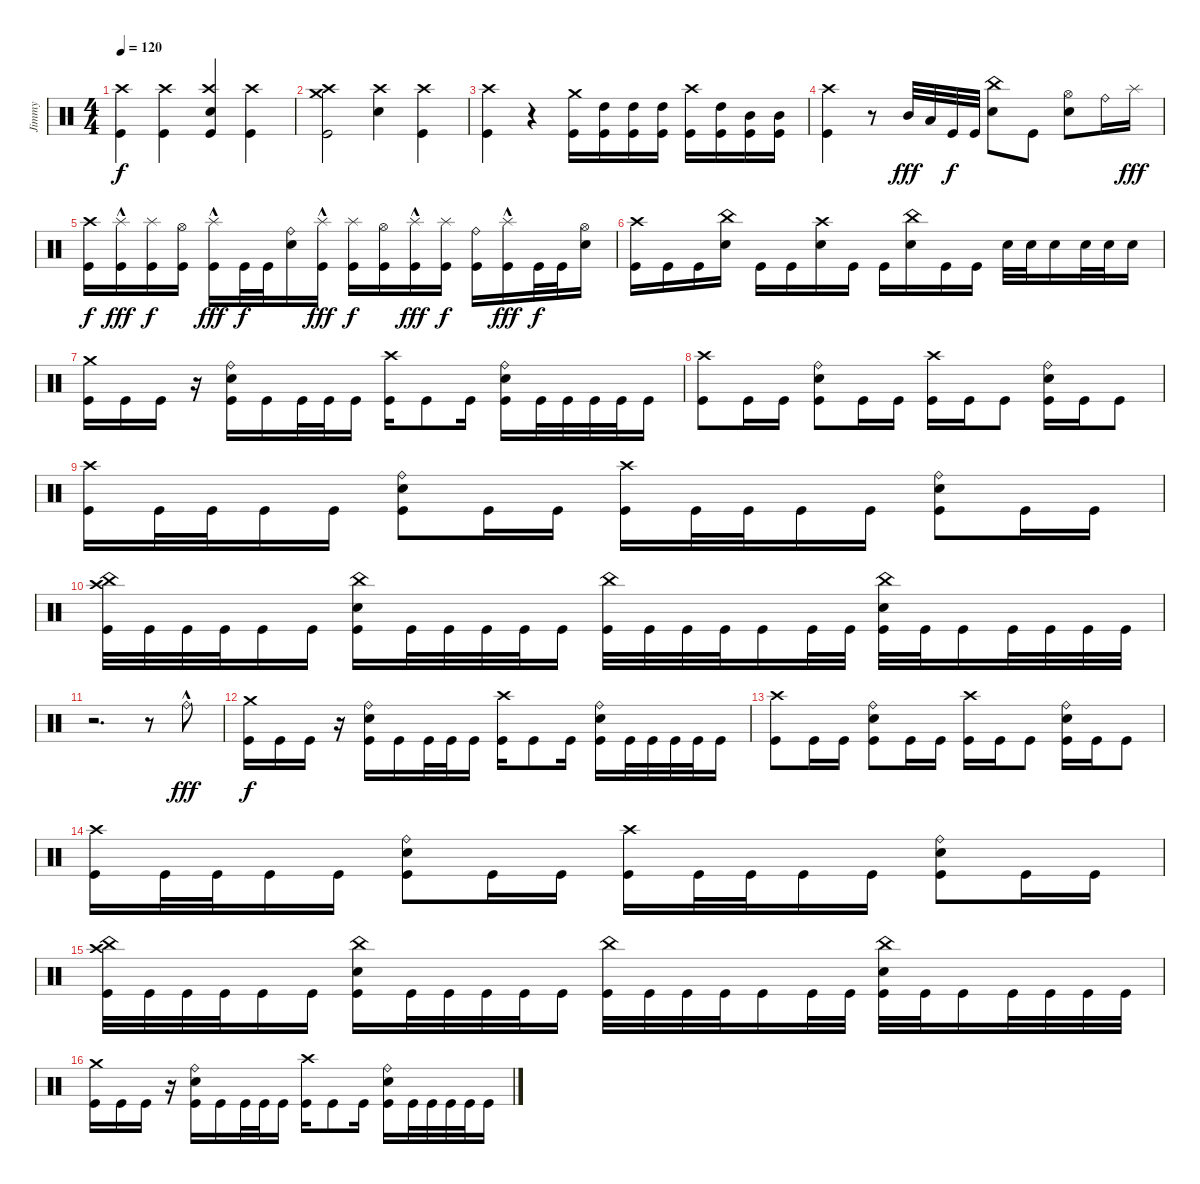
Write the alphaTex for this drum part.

\track ("Jimmy" "Jimmy") {instrument percussion}
\staff {score}
\articulation defaults
\ts (4 4)
\tempo 120
\clef neutral
\ks c
("Kick (hit)" "Crash high (hit)").4{dy f} ("Kick (hit)" "Crash high (hit)").4 ("Crash high (hit)" "Kick (hit)" "Snare (hit) 2").4 ("Kick (hit)" "Crash high (hit)").4 |
("Crash high (hit)" "Kick (hit)" "Crash medium (hit)").2 ("Snare (hit) 2" "Crash high (hit)").4 ("Crash high (hit)" "Kick (hit)").4 |
("Kick (hit)" "Crash high (hit)").4 r.4 ("Kick (hit)" "Crash medium (hit)").16 ("High Tom (hit)" "Kick (hit)").16 ("High Tom (hit)" "Kick (hit)").16 ("High Tom (hit)" "Kick (hit)").16 ("Crash high (hit)" "Kick (hit)").16 ("High Tom (hit)" "Kick (hit)").16 ("Mid Tom (hit)" "Kick (hit)").16 ("Mid Tom (hit)" "Kick (hit)").16 |
("Kick (hit)" "Crash high (hit)").4 r.8 "Mid Tom (hit)".32{dy fff} "Low Tom (hit)".32 "Kick (hit)".32{dy f} "Kick (hit)".32 ("Snare (hit) 2" "China (hit)").8 "Kick (hit)".8 ("Snare (hit) 2" "Hi-Hat (open)").8 "Ride (bell)".16 "Splash (hit)".16{dy fff} |
("Kick (hit)" "Crash high (hit)").16{dy f} ("Kick (hit)" "Splash (hit)"{hac}).16{dy fff} ("Kick (hit)" "Splash (hit)").16{dy f} ("Kick (hit)" "Hi-Hat (open)").16 ("Kick (hit)" "Splash (hit)"{hac}).16{dy fff} "Kick (hit)".32{dy f} "Kick (hit)".32 ("Ride (bell)" "Snare (hit) 2").16 ("Kick (hit)" "Splash (hit)"{hac}).16{dy fff} ("Kick (hit)" "Splash (hit)").16{dy f} ("Kick (hit)" "Hi-Hat (open)").16 ("Kick (hit)" "Splash (hit)"{hac}).16{dy fff} ("Kick (hit)" "Splash (hit)").16{dy f} ("Kick (hit)" "Ride (bell)").16 ("Kick (hit)" "Splash (hit)"{hac}).16{dy fff} "Kick (hit)".32{dy f} "Kick (hit)".32 ("Snare (hit) 2" "Hi-Hat (open)").16 |
("Kick (hit)" "Crash high (hit)").16 "Kick (hit)".16 "Kick (hit)".16 ("Snare (hit) 2" "China (hit)").16 "Kick (hit)".16 "Kick (hit)".16 ("Snare (hit) 2" "Crash high (hit)").16 "Kick (hit)".16 "Kick (hit)".16 ("Snare (hit) 2" "China (hit)").16 "Kick (hit)".16 "Kick (hit)".16 "Snare (hit) 2".32 "Snare (hit) 2".32 "Snare (hit) 2".16 "Snare (hit) 2".32 "Snare (hit) 2".32 "Snare (hit) 2".16 |
("Crash medium (hit)" "Kick (hit)").16 "Kick (hit)".16 "Kick (hit)".16 r.16 ("Snare (hit) 2" "Kick (hit)" "Ride (bell)").16 "Kick (hit)".16 "Kick (hit)".32 "Kick (hit)".32 "Kick (hit)".16 ("Crash high (hit)" "Kick (hit)").16 "Kick (hit)".8 "Kick (hit)".16 ("Snare (hit) 2" "Kick (hit)" "Ride (bell)").16 "Kick (hit)".32 "Kick (hit)".32 "Kick (hit)".32 "Kick (hit)".32 "Kick (hit)".16 |
("Crash high (hit)" "Kick (hit)").8 "Kick (hit)".16 "Kick (hit)".16 ("Snare (hit) 2" "Kick (hit)" "Ride (bell)").8 "Kick (hit)".16 "Kick (hit)".16 ("Crash high (hit)" "Kick (hit)").16 "Kick (hit)".16 "Kick (hit)".8 ("Snare (hit) 2" "Kick (hit)" "Ride (bell)").16 "Kick (hit)".16 "Kick (hit)".8 |
("Crash high (hit)" "Kick (hit)").16 "Kick (hit)".32 "Kick (hit)".32 "Kick (hit)".16 "Kick (hit)".16 ("Snare (hit) 2" "Kick (hit)" "Ride (bell)").8 "Kick (hit)".16 "Kick (hit)".16 ("Crash high (hit)" "Kick (hit)").16 "Kick (hit)".32 "Kick (hit)".32 "Kick (hit)".16 "Kick (hit)".16 ("Ride (bell)" "Kick (hit)" "Snare (hit) 2").8 "Kick (hit)".16 "Kick (hit)".16 |
("Crash high (hit)" "Kick (hit)" "China (hit)").32 "Kick (hit)".32 "Kick (hit)".32 "Kick (hit)".32 "Kick (hit)".16 "Kick (hit)".16 ("Snare (hit) 2" "Kick (hit)" "China (hit)").16 "Kick (hit)".32 "Kick (hit)".32 "Kick (hit)".32 "Kick (hit)".32 "Kick (hit)".16 ("China (hit)" "Kick (hit)").32 "Kick (hit)".32 "Kick (hit)".32 "Kick (hit)".32 "Kick (hit)".16 "Kick (hit)".32 "Kick (hit)".32 ("Snare (hit) 2" "Kick (hit)" "China (hit)").32 "Kick (hit)".32 "Kick (hit)".16 "Kick (hit)".32 "Kick (hit)".32 "Kick (hit)".32 "Kick (hit)".32 |
r.2{d} r.8 "Ride (bell)"{hac}.8{dy fff} |
("Crash medium (hit)" "Kick (hit)").16{dy f} "Kick (hit)".16 "Kick (hit)".16 r.16 ("Snare (hit) 2" "Kick (hit)" "Ride (bell)").16 "Kick (hit)".16 "Kick (hit)".32 "Kick (hit)".32 "Kick (hit)".16 ("Crash high (hit)" "Kick (hit)").16 "Kick (hit)".8 "Kick (hit)".16 ("Snare (hit) 2" "Kick (hit)" "Ride (bell)").16 "Kick (hit)".32 "Kick (hit)".32 "Kick (hit)".32 "Kick (hit)".32 "Kick (hit)".16 |
("Crash high (hit)" "Kick (hit)").8 "Kick (hit)".16 "Kick (hit)".16 ("Snare (hit) 2" "Kick (hit)" "Ride (bell)").8 "Kick (hit)".16 "Kick (hit)".16 ("Crash high (hit)" "Kick (hit)").16 "Kick (hit)".16 "Kick (hit)".8 ("Snare (hit) 2" "Kick (hit)" "Ride (bell)").16 "Kick (hit)".16 "Kick (hit)".8 |
("Crash high (hit)" "Kick (hit)").16 "Kick (hit)".32 "Kick (hit)".32 "Kick (hit)".16 "Kick (hit)".16 ("Snare (hit) 2" "Kick (hit)" "Ride (bell)").8 "Kick (hit)".16 "Kick (hit)".16 ("Crash high (hit)" "Kick (hit)").16 "Kick (hit)".32 "Kick (hit)".32 "Kick (hit)".16 "Kick (hit)".16 ("Ride (bell)" "Kick (hit)" "Snare (hit) 2").8 "Kick (hit)".16 "Kick (hit)".16 |
("Crash high (hit)" "Kick (hit)" "China (hit)").32 "Kick (hit)".32 "Kick (hit)".32 "Kick (hit)".32 "Kick (hit)".16 "Kick (hit)".16 ("Snare (hit) 2" "Kick (hit)" "China (hit)").16 "Kick (hit)".32 "Kick (hit)".32 "Kick (hit)".32 "Kick (hit)".32 "Kick (hit)".16 ("China (hit)" "Kick (hit)").32 "Kick (hit)".32 "Kick (hit)".32 "Kick (hit)".32 "Kick (hit)".16 "Kick (hit)".32 "Kick (hit)".32 ("Snare (hit) 2" "Kick (hit)" "China (hit)").32 "Kick (hit)".32 "Kick (hit)".16 "Kick (hit)".32 "Kick (hit)".32 "Kick (hit)".32 "Kick (hit)".32 |
("Crash medium (hit)" "Kick (hit)").16 "Kick (hit)".16 "Kick (hit)".16 r.16 ("Snare (hit) 2" "Kick (hit)" "Ride (bell)").16 "Kick (hit)".16 "Kick (hit)".32 "Kick (hit)".32 "Kick (hit)".16 ("Crash high (hit)" "Kick (hit)").16 "Kick (hit)".8 "Kick (hit)".16 ("Snare (hit) 2" "Kick (hit)" "Ride (bell)").16 "Kick (hit)".32 "Kick (hit)".32 "Kick (hit)".32 "Kick (hit)".32 "Kick (hit)".16
